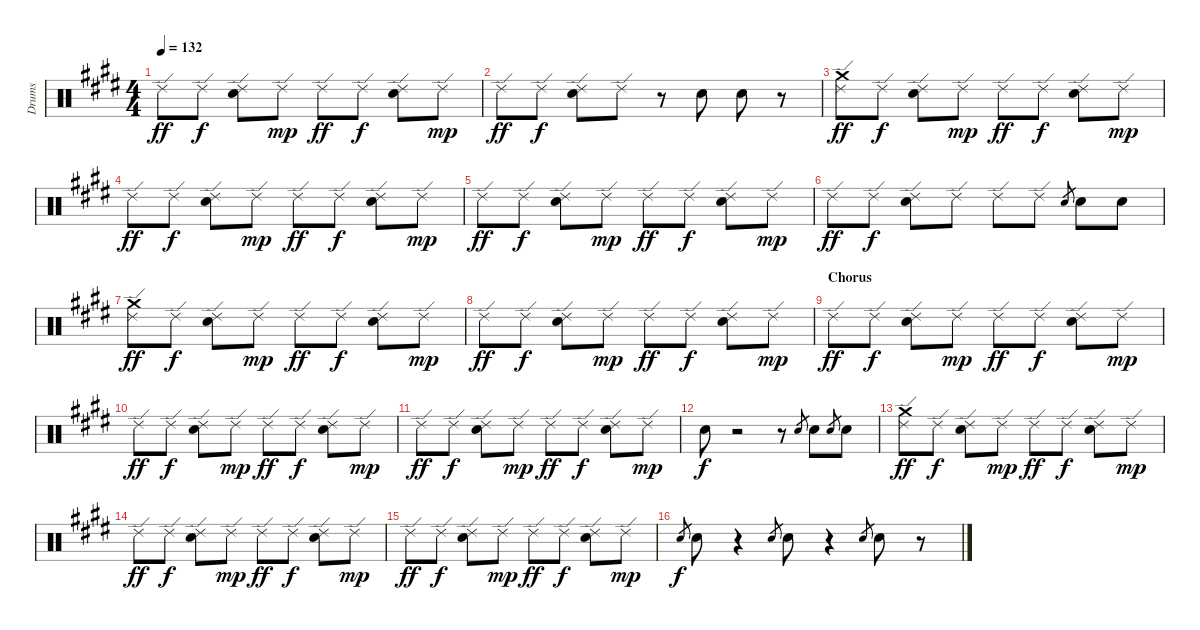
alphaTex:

\track ("Drums" "Drums") {instrument percussion}
\staff {score}
\articulation defaults
\ts (4 4)
\tempo 132
\clef neutral
\ks e "Ride (edge) 2".8{dy ff} "Ride (edge) 2".8{dy f}
("Electric Snare (hit)" "Ride (edge) 2").8 "Ride (edge) 2".8{dy mp} "Ride (edge) 2".8{dy ff} "Ride (edge) 2".8{dy f} ("Electric Snare (hit)" "Ride (edge) 2").8 "Ride (edge) 2".8{dy mp} |
"Ride (edge) 2".8{dy ff} "Ride (edge) 2".8{dy f} ("Electric Snare (hit)" "Ride (edge) 2").8 "Ride (edge) 2".8 r.8 "Electric Snare (hit)".8 "Electric Snare (hit)".8 r.8 |
("Crash medium (hit)" "Ride (edge) 2").8{dy ff} "Ride (edge) 2".8{dy f} ("Electric Snare (hit)" "Ride (edge) 2").8 "Ride (edge) 2".8{dy mp} "Ride (edge) 2".8{dy ff} "Ride (edge) 2".8{dy f} ("Electric Snare (hit)" "Ride (edge) 2").8 "Ride (edge) 2".8{dy mp} |
"Ride (edge) 2".8{dy ff} "Ride (edge) 2".8{dy f} ("Electric Snare (hit)" "Ride (edge) 2").8 "Ride (edge) 2".8{dy mp} "Ride (edge) 2".8{dy ff} "Ride (edge) 2".8{dy f} ("Electric Snare (hit)" "Ride (edge) 2").8 "Ride (edge) 2".8{dy mp} |
"Ride (edge) 2".8{dy ff} "Ride (edge) 2".8{dy f} ("Electric Snare (hit)" "Ride (edge) 2").8 "Ride (edge) 2".8{dy mp} "Ride (edge) 2".8{dy ff} "Ride (edge) 2".8{dy f} ("Electric Snare (hit)" "Ride (edge) 2").8 "Ride (edge) 2".8{dy mp} |
"Ride (edge) 2".8{dy ff} "Ride (edge) 2".8{dy f} ("Electric Snare (hit)" "Ride (edge) 2").8 "Ride (edge) 2".8 "Ride (edge) 2".8 "Ride (edge) 2".8 "Electric Snare (hit)".8{gr} "Electric Snare (hit)".8 "Electric Snare (hit)".8 |
("Crash medium (hit)" "Ride (edge) 2").8{dy ff} "Ride (edge) 2".8{dy f} ("Electric Snare (hit)" "Ride (edge) 2").8 "Ride (edge) 2".8{dy mp} "Ride (edge) 2".8{dy ff} "Ride (edge) 2".8{dy f} ("Electric Snare (hit)" "Ride (edge) 2").8 "Ride (edge) 2".8{dy mp} |
"Ride (edge) 2".8{dy ff} "Ride (edge) 2".8{dy f} ("Electric Snare (hit)" "Ride (edge) 2").8 "Ride (edge) 2".8{dy mp} "Ride (edge) 2".8{dy ff} "Ride (edge) 2".8{dy f} ("Electric Snare (hit)" "Ride (edge) 2").8 "Ride (edge) 2".8{dy mp} |
\section ("" "Chorus")
"Ride (edge) 2".8{dy ff} "Ride (edge) 2".8{dy f} ("Electric Snare (hit)" "Ride (edge) 2").8 "Ride (edge) 2".8{dy mp} "Ride (edge) 2".8{dy ff} "Ride (edge) 2".8{dy f} ("Electric Snare (hit)" "Ride (edge) 2").8 "Ride (edge) 2".8{dy mp} |
"Ride (edge) 2".8{dy ff} "Ride (edge) 2".8{dy f} ("Electric Snare (hit)" "Ride (edge) 2").8 "Ride (edge) 2".8{dy mp} "Ride (edge) 2".8{dy ff} "Ride (edge) 2".8{dy f} ("Electric Snare (hit)" "Ride (edge) 2").8 "Ride (edge) 2".8{dy mp} |
"Ride (edge) 2".8{dy ff} "Ride (edge) 2".8{dy f} ("Electric Snare (hit)" "Ride (edge) 2").8 "Ride (edge) 2".8{dy mp} "Ride (edge) 2".8{dy ff} "Ride (edge) 2".8{dy f} ("Electric Snare (hit)" "Ride (edge) 2").8 "Ride (edge) 2".8{dy mp} |
"Electric Snare (hit)".8{dy f} r.2 r.8 "Electric Snare (hit)".8{gr} "Electric Snare (hit)".8 "Electric Snare (hit)".8{gr} "Electric Snare (hit)".8 |
("Crash medium (hit)" "Ride (edge) 2").8{dy ff} "Ride (edge) 2".8{dy f} ("Electric Snare (hit)" "Ride (edge) 2").8 "Ride (edge) 2".8{dy mp} "Ride (edge) 2".8{dy ff} "Ride (edge) 2".8{dy f} ("Electric Snare (hit)" "Ride (edge) 2").8 "Ride (edge) 2".8{dy mp} |
"Ride (edge) 2".8{dy ff} "Ride (edge) 2".8{dy f} ("Electric Snare (hit)" "Ride (edge) 2").8 "Ride (edge) 2".8{dy mp} "Ride (edge) 2".8{dy ff} "Ride (edge) 2".8{dy f} ("Electric Snare (hit)" "Ride (edge) 2").8 "Ride (edge) 2".8{dy mp} |
"Ride (edge) 2".8{dy ff} "Ride (edge) 2".8{dy f} ("Electric Snare (hit)" "Ride (edge) 2").8 "Ride (edge) 2".8{dy mp} "Ride (edge) 2".8{dy ff} "Ride (edge) 2".8{dy f} ("Electric Snare (hit)" "Ride (edge) 2").8 "Ride (edge) 2".8{dy mp} |
"Electric Snare (hit)".8{gr dy f} "Electric Snare (hit)".8 r.4 "Electric Snare (hit)".8{gr} "Electric Snare (hit)".8 r.4 "Electric Snare (hit)".8{gr} "Electric Snare (hit)".8 r.8
